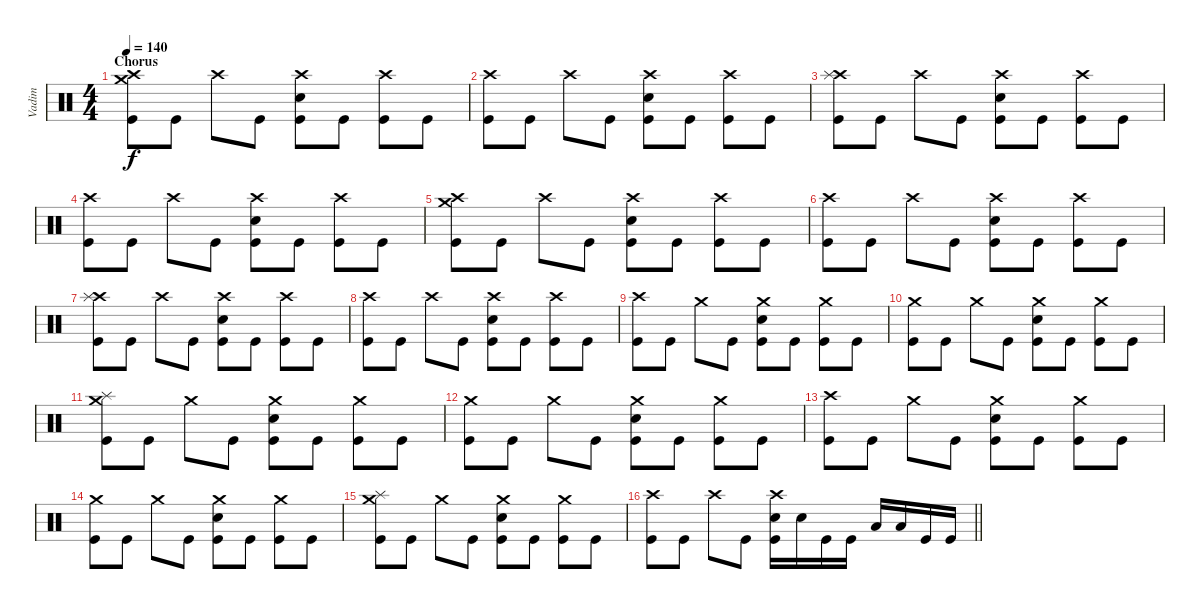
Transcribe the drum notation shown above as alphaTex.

\track ("Vadim" "Vadim") {instrument percussion}
\staff {score}
\articulation defaults
\ts (4 4)
\section ("" "Chorus")
\tempo 140
\clef neutral
\ks c
("Crash high (hit)" "Crash medium (hit)" "Kick (hit)").8{dy f} "Kick (hit)".8 "Crash high (hit)".8 "Kick (hit)".8 ("Crash high (hit)" "Electric Snare (hit)" "Kick (hit)").8 "Kick (hit)".8 ("Crash high (hit)" "Kick (hit)").8 "Kick (hit)".8 |
("Crash high (hit)" "Kick (hit)").8 "Kick (hit)".8 "Crash high (hit)".8 "Kick (hit)".8 ("Crash high (hit)" "Electric Snare (hit)" "Kick (hit)").8 "Kick (hit)".8 ("Crash high (hit)" "Kick (hit)").8 "Kick (hit)".8 |
("Crash high (hit)" "Splash (hit)" "Kick (hit)").8 "Kick (hit)".8 "Crash high (hit)".8 "Kick (hit)".8 ("Crash high (hit)" "Electric Snare (hit)" "Kick (hit)").8 "Kick (hit)".8 ("Crash high (hit)" "Kick (hit)").8 "Kick (hit)".8 |
("Crash high (hit)" "Kick (hit)").8 "Kick (hit)".8 "Crash high (hit)".8 "Kick (hit)".8 ("Crash high (hit)" "Electric Snare (hit)" "Kick (hit)").8 "Kick (hit)".8 ("Crash high (hit)" "Kick (hit)").8 "Kick (hit)".8 |
("Crash high (hit)" "Crash medium (hit)" "Kick (hit)").8 "Kick (hit)".8 "Crash high (hit)".8 "Kick (hit)".8 ("Crash high (hit)" "Electric Snare (hit)" "Kick (hit)").8 "Kick (hit)".8 ("Crash high (hit)" "Kick (hit)").8 "Kick (hit)".8 |
("Crash high (hit)" "Kick (hit)").8 "Kick (hit)".8 "Crash high (hit)".8 "Kick (hit)".8 ("Crash high (hit)" "Electric Snare (hit)" "Kick (hit)").8 "Kick (hit)".8 ("Crash high (hit)" "Kick (hit)").8 "Kick (hit)".8 |
("Crash high (hit)" "Splash (hit)" "Kick (hit)").8 "Kick (hit)".8 "Crash high (hit)".8 "Kick (hit)".8 ("Crash high (hit)" "Electric Snare (hit)" "Kick (hit)").8 "Kick (hit)".8 ("Crash high (hit)" "Kick (hit)").8 "Kick (hit)".8 |
("Crash high (hit)" "Kick (hit)").8 "Kick (hit)".8 "Crash high (hit)".8 "Kick (hit)".8 ("Crash high (hit)" "Electric Snare (hit)" "Kick (hit)").8 "Kick (hit)".8 ("Crash high (hit)" "Kick (hit)").8 "Kick (hit)".8 |
("Crash high (hit)" "Kick (hit)").8 "Kick (hit)".8 "Crash medium (hit)".8 "Kick (hit)".8 ("Crash medium (hit)" "Electric Snare (hit)" "Kick (hit)").8 "Kick (hit)".8 ("Crash medium (hit)" "Kick (hit)").8 "Kick (hit)".8 |
("Crash medium (hit)" "Kick (hit)").8 "Kick (hit)".8 "Crash medium (hit)".8 "Kick (hit)".8 ("Crash medium (hit)" "Electric Snare (hit)" "Kick (hit)").8 "Kick (hit)".8 ("Crash medium (hit)" "Kick (hit)").8 "Kick (hit)".8 |
("Crash medium (hit)" "Splash (hit)" "Kick (hit)").8 "Kick (hit)".8 "Crash medium (hit)".8 "Kick (hit)".8 ("Crash medium (hit)" "Electric Snare (hit)" "Kick (hit)").8 "Kick (hit)".8 ("Crash medium (hit)" "Kick (hit)").8 "Kick (hit)".8 |
("Crash medium (hit)" "Kick (hit)").8 "Kick (hit)".8 "Crash medium (hit)".8 "Kick (hit)".8 ("Crash medium (hit)" "Electric Snare (hit)" "Kick (hit)").8 "Kick (hit)".8 ("Crash medium (hit)" "Kick (hit)").8 "Kick (hit)".8 |
("Crash high (hit)" "Kick (hit)").8 "Kick (hit)".8 "Crash medium (hit)".8 "Kick (hit)".8 ("Crash medium (hit)" "Electric Snare (hit)" "Kick (hit)").8 "Kick (hit)".8 ("Crash medium (hit)" "Kick (hit)").8 "Kick (hit)".8 |
("Crash medium (hit)" "Kick (hit)").8 "Kick (hit)".8 "Crash medium (hit)".8 "Kick (hit)".8 ("Crash medium (hit)" "Electric Snare (hit)" "Kick (hit)").8 "Kick (hit)".8 ("Crash medium (hit)" "Kick (hit)").8 "Kick (hit)".8 |
("Crash medium (hit)" "Splash (hit)" "Kick (hit)").8 "Kick (hit)".8 "Crash medium (hit)".8 "Kick (hit)".8 ("Crash medium (hit)" "Electric Snare (hit)" "Kick (hit)").8 "Kick (hit)".8 ("Crash medium (hit)" "Kick (hit)").8 "Kick (hit)".8 |
\barLineRight lightlight
("Crash high (hit)" "Kick (hit)").8 "Kick (hit)".8 "Crash high (hit)".8 "Kick (hit)".8 ("Crash high (hit)" "Electric Snare (hit)" "Kick (hit)").16 "Electric Snare (hit)".16 "Kick (hit)".16 "Kick (hit)".16 "Low Floor Tom (hit)".16 "Low Floor Tom (hit)".16 "Kick (hit)".16 "Kick (hit)".16
